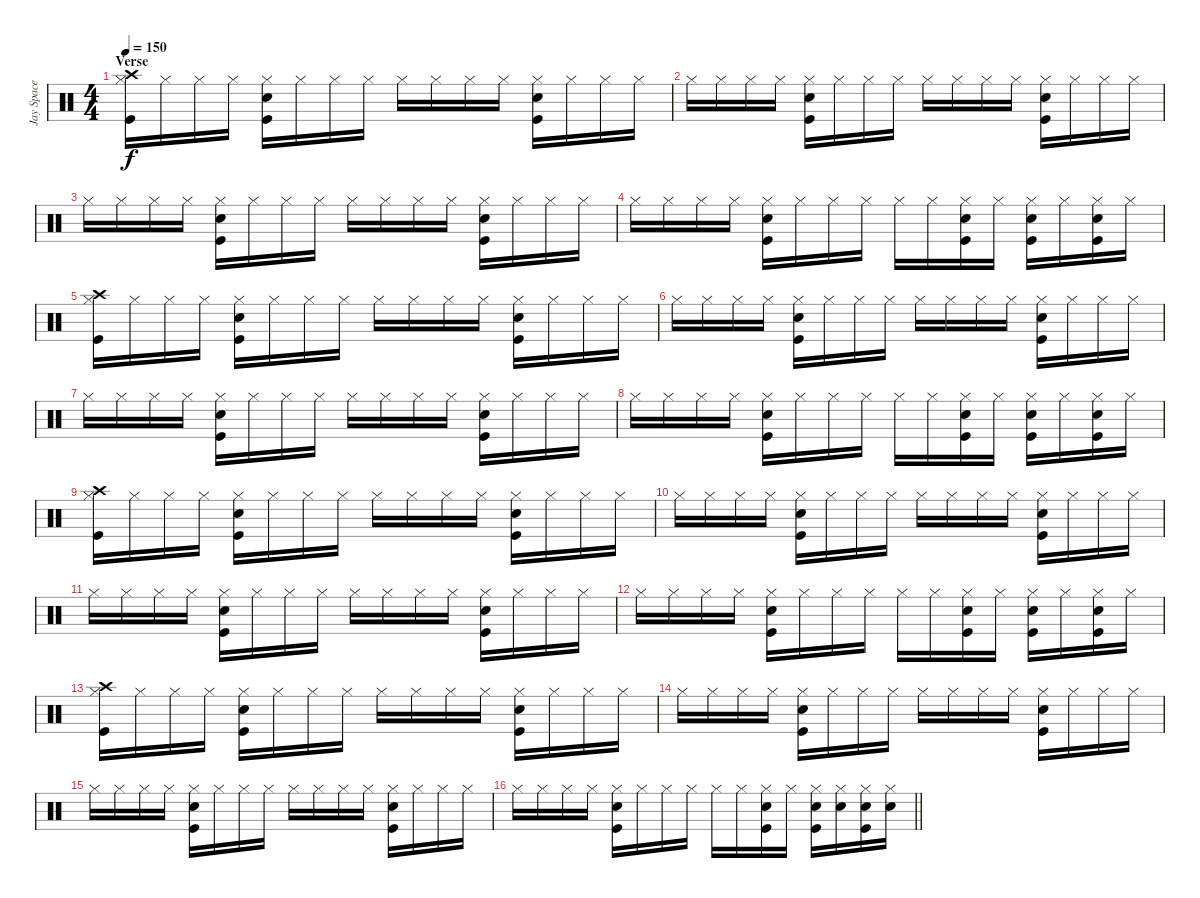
\track ("Jay Space - Drums" "Jay Space ") {instrument percussion}
\staff {score}
\articulation defaults
\ts (4 4)
\section ("" "Verse")
\tempo 150
\clef neutral
\ks c
("Hi-Hat (closed)" "Kick (hit)" "Crash high (hit)").16{dy f} "Hi-Hat (closed)".16 "Hi-Hat (closed)".16 "Hi-Hat (closed)".16 ("Hi-Hat (closed)" "Snare (hit) 2" "Kick (hit)").16 "Hi-Hat (closed)".16 "Hi-Hat (closed)".16 "Hi-Hat (closed)".16 "Hi-Hat (closed)".16 "Hi-Hat (closed)".16 "Hi-Hat (closed)".16 "Hi-Hat (closed)".16 ("Hi-Hat (closed)" "Snare (hit) 2" "Kick (hit)").16 "Hi-Hat (closed)".16 "Hi-Hat (closed)".16 "Hi-Hat (closed)".16 |
"Hi-Hat (closed)".16 "Hi-Hat (closed)".16 "Hi-Hat (closed)".16 "Hi-Hat (closed)".16 ("Hi-Hat (closed)" "Snare (hit) 2" "Kick (hit)").16 "Hi-Hat (closed)".16 "Hi-Hat (closed)".16 "Hi-Hat (closed)".16 "Hi-Hat (closed)".16 "Hi-Hat (closed)".16 "Hi-Hat (closed)".16 "Hi-Hat (closed)".16 ("Hi-Hat (closed)" "Snare (hit) 2" "Kick (hit)").16 "Hi-Hat (closed)".16 "Hi-Hat (closed)".16 "Hi-Hat (closed)".16 |
"Hi-Hat (closed)".16 "Hi-Hat (closed)".16 "Hi-Hat (closed)".16 "Hi-Hat (closed)".16 ("Hi-Hat (closed)" "Snare (hit) 2" "Kick (hit)").16 "Hi-Hat (closed)".16 "Hi-Hat (closed)".16 "Hi-Hat (closed)".16 "Hi-Hat (closed)".16 "Hi-Hat (closed)".16 "Hi-Hat (closed)".16 "Hi-Hat (closed)".16 ("Hi-Hat (closed)" "Snare (hit) 2" "Kick (hit)").16 "Hi-Hat (closed)".16 "Hi-Hat (closed)".16 "Hi-Hat (closed)".16 |
"Hi-Hat (closed)".16 "Hi-Hat (closed)".16 "Hi-Hat (closed)".16 "Hi-Hat (closed)".16 ("Hi-Hat (closed)" "Snare (hit) 2" "Kick (hit)").16 "Hi-Hat (closed)".16 "Hi-Hat (closed)".16 "Hi-Hat (closed)".16 "Hi-Hat (closed)".16 "Hi-Hat (closed)".16 ("Hi-Hat (closed)" "Snare (hit) 2" "Kick (hit)").16 "Hi-Hat (closed)".16 ("Hi-Hat (closed)" "Snare (hit) 2" "Kick (hit)").16 "Hi-Hat (closed)".16 ("Hi-Hat (closed)" "Snare (hit) 2" "Kick (hit)").16 "Hi-Hat (closed)".16 |
("Hi-Hat (closed)" "Kick (hit)" "Crash high (hit)").16 "Hi-Hat (closed)".16 "Hi-Hat (closed)".16 "Hi-Hat (closed)".16 ("Hi-Hat (closed)" "Snare (hit) 2" "Kick (hit)").16 "Hi-Hat (closed)".16 "Hi-Hat (closed)".16 "Hi-Hat (closed)".16 "Hi-Hat (closed)".16 "Hi-Hat (closed)".16 "Hi-Hat (closed)".16 "Hi-Hat (closed)".16 ("Hi-Hat (closed)" "Snare (hit) 2" "Kick (hit)").16 "Hi-Hat (closed)".16 "Hi-Hat (closed)".16 "Hi-Hat (closed)".16 |
"Hi-Hat (closed)".16 "Hi-Hat (closed)".16 "Hi-Hat (closed)".16 "Hi-Hat (closed)".16 ("Hi-Hat (closed)" "Snare (hit) 2" "Kick (hit)").16 "Hi-Hat (closed)".16 "Hi-Hat (closed)".16 "Hi-Hat (closed)".16 "Hi-Hat (closed)".16 "Hi-Hat (closed)".16 "Hi-Hat (closed)".16 "Hi-Hat (closed)".16 ("Hi-Hat (closed)" "Snare (hit) 2" "Kick (hit)").16 "Hi-Hat (closed)".16 "Hi-Hat (closed)".16 "Hi-Hat (closed)".16 |
"Hi-Hat (closed)".16 "Hi-Hat (closed)".16 "Hi-Hat (closed)".16 "Hi-Hat (closed)".16 ("Hi-Hat (closed)" "Snare (hit) 2" "Kick (hit)").16 "Hi-Hat (closed)".16 "Hi-Hat (closed)".16 "Hi-Hat (closed)".16 "Hi-Hat (closed)".16 "Hi-Hat (closed)".16 "Hi-Hat (closed)".16 "Hi-Hat (closed)".16 ("Hi-Hat (closed)" "Snare (hit) 2" "Kick (hit)").16 "Hi-Hat (closed)".16 "Hi-Hat (closed)".16 "Hi-Hat (closed)".16 |
"Hi-Hat (closed)".16 "Hi-Hat (closed)".16 "Hi-Hat (closed)".16 "Hi-Hat (closed)".16 ("Hi-Hat (closed)" "Snare (hit) 2" "Kick (hit)").16 "Hi-Hat (closed)".16 "Hi-Hat (closed)".16 "Hi-Hat (closed)".16 "Hi-Hat (closed)".16 "Hi-Hat (closed)".16 ("Hi-Hat (closed)" "Snare (hit) 2" "Kick (hit)").16 "Hi-Hat (closed)".16 ("Hi-Hat (closed)" "Snare (hit) 2" "Kick (hit)").16 "Hi-Hat (closed)".16 ("Hi-Hat (closed)" "Snare (hit) 2" "Kick (hit)").16 "Hi-Hat (closed)".16 |
("Hi-Hat (closed)" "Kick (hit)" "Crash high (hit)").16 "Hi-Hat (closed)".16 "Hi-Hat (closed)".16 "Hi-Hat (closed)".16 ("Hi-Hat (closed)" "Snare (hit) 2" "Kick (hit)").16 "Hi-Hat (closed)".16 "Hi-Hat (closed)".16 "Hi-Hat (closed)".16 "Hi-Hat (closed)".16 "Hi-Hat (closed)".16 "Hi-Hat (closed)".16 "Hi-Hat (closed)".16 ("Hi-Hat (closed)" "Snare (hit) 2" "Kick (hit)").16 "Hi-Hat (closed)".16 "Hi-Hat (closed)".16 "Hi-Hat (closed)".16 |
"Hi-Hat (closed)".16 "Hi-Hat (closed)".16 "Hi-Hat (closed)".16 "Hi-Hat (closed)".16 ("Hi-Hat (closed)" "Snare (hit) 2" "Kick (hit)").16 "Hi-Hat (closed)".16 "Hi-Hat (closed)".16 "Hi-Hat (closed)".16 "Hi-Hat (closed)".16 "Hi-Hat (closed)".16 "Hi-Hat (closed)".16 "Hi-Hat (closed)".16 ("Hi-Hat (closed)" "Snare (hit) 2" "Kick (hit)").16 "Hi-Hat (closed)".16 "Hi-Hat (closed)".16 "Hi-Hat (closed)".16 |
"Hi-Hat (closed)".16 "Hi-Hat (closed)".16 "Hi-Hat (closed)".16 "Hi-Hat (closed)".16 ("Hi-Hat (closed)" "Snare (hit) 2" "Kick (hit)").16 "Hi-Hat (closed)".16 "Hi-Hat (closed)".16 "Hi-Hat (closed)".16 "Hi-Hat (closed)".16 "Hi-Hat (closed)".16 "Hi-Hat (closed)".16 "Hi-Hat (closed)".16 ("Hi-Hat (closed)" "Snare (hit) 2" "Kick (hit)").16 "Hi-Hat (closed)".16 "Hi-Hat (closed)".16 "Hi-Hat (closed)".16 |
"Hi-Hat (closed)".16 "Hi-Hat (closed)".16 "Hi-Hat (closed)".16 "Hi-Hat (closed)".16 ("Hi-Hat (closed)" "Snare (hit) 2" "Kick (hit)").16 "Hi-Hat (closed)".16 "Hi-Hat (closed)".16 "Hi-Hat (closed)".16 "Hi-Hat (closed)".16 "Hi-Hat (closed)".16 ("Hi-Hat (closed)" "Snare (hit) 2" "Kick (hit)").16 "Hi-Hat (closed)".16 ("Hi-Hat (closed)" "Snare (hit) 2" "Kick (hit)").16 "Hi-Hat (closed)".16 ("Hi-Hat (closed)" "Snare (hit) 2" "Kick (hit)").16 "Hi-Hat (closed)".16 |
("Hi-Hat (closed)" "Kick (hit)" "Crash high (hit)").16 "Hi-Hat (closed)".16 "Hi-Hat (closed)".16 "Hi-Hat (closed)".16 ("Hi-Hat (closed)" "Snare (hit) 2" "Kick (hit)").16 "Hi-Hat (closed)".16 "Hi-Hat (closed)".16 "Hi-Hat (closed)".16 "Hi-Hat (closed)".16 "Hi-Hat (closed)".16 "Hi-Hat (closed)".16 "Hi-Hat (closed)".16 ("Hi-Hat (closed)" "Snare (hit) 2" "Kick (hit)").16 "Hi-Hat (closed)".16 "Hi-Hat (closed)".16 "Hi-Hat (closed)".16 |
"Hi-Hat (closed)".16 "Hi-Hat (closed)".16 "Hi-Hat (closed)".16 "Hi-Hat (closed)".16 ("Hi-Hat (closed)" "Snare (hit) 2" "Kick (hit)").16 "Hi-Hat (closed)".16 "Hi-Hat (closed)".16 "Hi-Hat (closed)".16 "Hi-Hat (closed)".16 "Hi-Hat (closed)".16 "Hi-Hat (closed)".16 "Hi-Hat (closed)".16 ("Hi-Hat (closed)" "Snare (hit) 2" "Kick (hit)").16 "Hi-Hat (closed)".16 "Hi-Hat (closed)".16 "Hi-Hat (closed)".16 |
"Hi-Hat (closed)".16 "Hi-Hat (closed)".16 "Hi-Hat (closed)".16 "Hi-Hat (closed)".16 ("Hi-Hat (closed)" "Snare (hit) 2" "Kick (hit)").16 "Hi-Hat (closed)".16 "Hi-Hat (closed)".16 "Hi-Hat (closed)".16 "Hi-Hat (closed)".16 "Hi-Hat (closed)".16 "Hi-Hat (closed)".16 "Hi-Hat (closed)".16 ("Hi-Hat (closed)" "Snare (hit) 2" "Kick (hit)").16 "Hi-Hat (closed)".16 "Hi-Hat (closed)".16 "Hi-Hat (closed)".16 |
\barLineRight lightlight "Hi-Hat (closed)".16 "Hi-Hat (closed)".16 "Hi-Hat (closed)".16 "Hi-Hat (closed)".16
("Hi-Hat (closed)" "Snare (hit) 2" "Kick (hit)").16 "Hi-Hat (closed)".16 "Hi-Hat (closed)".16 "Hi-Hat (closed)".16 "Hi-Hat (closed)".16 "Hi-Hat (closed)".16 ("Hi-Hat (closed)" "Snare (hit) 2" "Kick (hit)").16 "Hi-Hat (closed)".16 ("Hi-Hat (closed)" "Snare (hit) 2" "Kick (hit)").16 ("Hi-Hat (closed)" "Snare (hit) 2").16 ("Hi-Hat (closed)" "Snare (hit) 2" "Kick (hit)").16 ("Hi-Hat (closed)" "Snare (hit) 2").16
